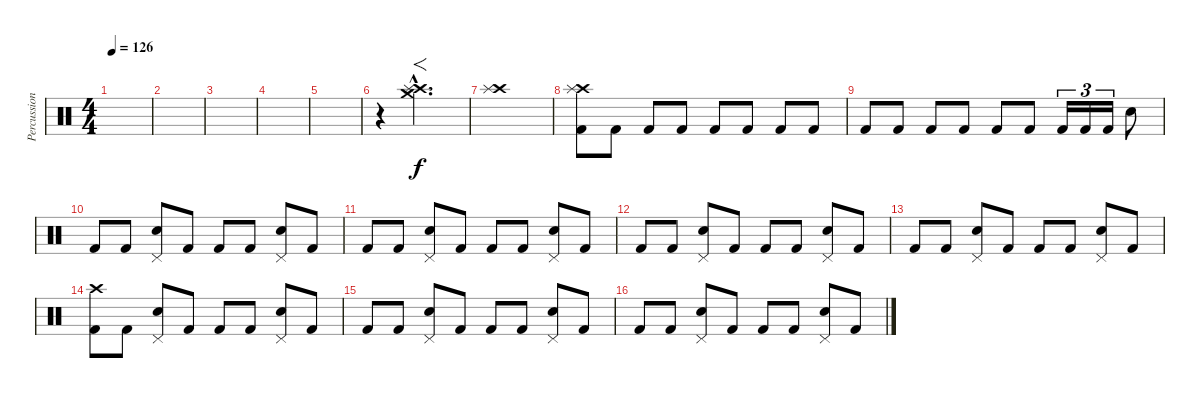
\track ("Percussion" "Percussion") {instrument percussion}
\staff {score}
\articulation defaults
\ts (4 4)
\tempo 126
\clef neutral
\ks c
|
|
|
|
|
r.4 ("Crash high (hit)"{hac} "Splash (hit)"{hac} "Crash medium (hit)"{hac}).2{f d} |
("Crash high (hit)" "Splash (hit)").1 |
("Crash high (hit)" "Splash (hit)" "Kick (hit) 2").8 "Kick (hit) 2".8 "Kick (hit) 2".8 "Kick (hit) 2".8 "Kick (hit) 2".8 "Kick (hit) 2".8 "Kick (hit) 2".8 "Kick (hit) 2".8 |
"Kick (hit) 2".8 "Kick (hit) 2".8 "Kick (hit) 2".8 "Kick (hit) 2".8 "Kick (hit) 2".8 "Kick (hit) 2".8 "Kick (hit) 2".16{tu (3 2)} "Kick (hit) 2".16{tu (3 2)} "Kick (hit) 2".16{tu (3 2)} "Electric Snare (hit)".8 |
"Kick (hit) 2".8 "Kick (hit) 2".8 ("Pedal Hi-Hat (hit)" "Electric Snare (hit)").8 "Kick (hit) 2".8 "Kick (hit) 2".8 "Kick (hit) 2".8 ("Pedal Hi-Hat (hit)" "Electric Snare (hit)").8 "Kick (hit) 2".8 |
"Kick (hit) 2".8 "Kick (hit) 2".8 ("Pedal Hi-Hat (hit)" "Electric Snare (hit)").8 "Kick (hit) 2".8 "Kick (hit) 2".8 "Kick (hit) 2".8 ("Pedal Hi-Hat (hit)" "Electric Snare (hit)").8 "Kick (hit) 2".8 |
"Kick (hit) 2".8 "Kick (hit) 2".8 ("Pedal Hi-Hat (hit)" "Electric Snare (hit)").8 "Kick (hit) 2".8 "Kick (hit) 2".8 "Kick (hit) 2".8 ("Pedal Hi-Hat (hit)" "Electric Snare (hit)").8 "Kick (hit) 2".8 |
"Kick (hit) 2".8 "Kick (hit) 2".8 ("Pedal Hi-Hat (hit)" "Electric Snare (hit)").8 "Kick (hit) 2".8 "Kick (hit) 2".8 "Kick (hit) 2".8 ("Pedal Hi-Hat (hit)" "Electric Snare (hit)").8 "Kick (hit) 2".8 |
("Crash high (hit)" "Kick (hit) 2").8 "Kick (hit) 2".8 ("Pedal Hi-Hat (hit)" "Electric Snare (hit)").8 "Kick (hit) 2".8 "Kick (hit) 2".8 "Kick (hit) 2".8 ("Pedal Hi-Hat (hit)" "Electric Snare (hit)").8 "Kick (hit) 2".8 |
"Kick (hit) 2".8 "Kick (hit) 2".8 ("Pedal Hi-Hat (hit)" "Electric Snare (hit)").8 "Kick (hit) 2".8 "Kick (hit) 2".8 "Kick (hit) 2".8 ("Pedal Hi-Hat (hit)" "Electric Snare (hit)").8 "Kick (hit) 2".8 |
"Kick (hit) 2".8 "Kick (hit) 2".8 ("Pedal Hi-Hat (hit)" "Electric Snare (hit)").8 "Kick (hit) 2".8 "Kick (hit) 2".8 "Kick (hit) 2".8 ("Pedal Hi-Hat (hit)" "Electric Snare (hit)").8 "Kick (hit) 2".8
